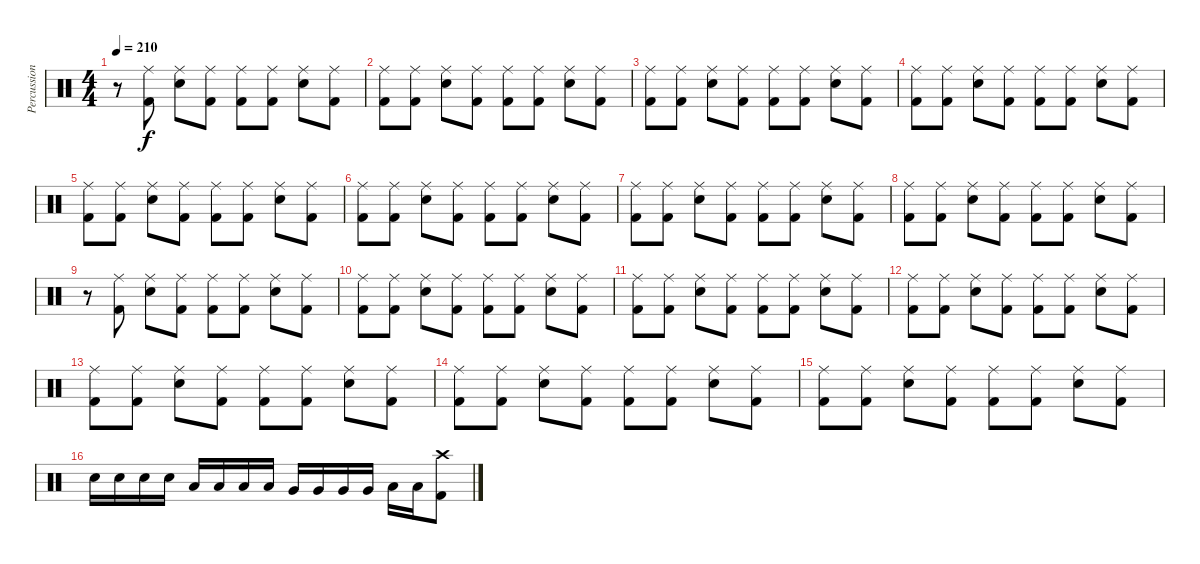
\track ("Percussion" "Percussion") {instrument percussion}
\staff {score}
\articulation defaults
\ts (4 4)
\tempo 210
\clef neutral
\ks c
r.8{dy f} ("Ride (middle)" "Kick (hit) 2").8 ("Ride (middle)" "Electric Snare (hit)").8 ("Ride (middle)" "Kick (hit) 2").8 ("Ride (middle)" "Kick (hit) 2").8 ("Ride (middle)" "Kick (hit) 2").8 ("Ride (middle)" "Electric Snare (hit)").8 ("Ride (middle)" "Kick (hit) 2").8 |
("Ride (middle)" "Kick (hit) 2").8 ("Ride (middle)" "Kick (hit) 2").8 ("Ride (middle)" "Electric Snare (hit)").8 ("Ride (middle)" "Kick (hit) 2").8 ("Ride (middle)" "Kick (hit) 2").8 ("Ride (middle)" "Kick (hit) 2").8 ("Ride (middle)" "Electric Snare (hit)").8 ("Ride (middle)" "Kick (hit) 2").8 |
("Ride (middle)" "Kick (hit) 2").8 ("Ride (middle)" "Kick (hit) 2").8 ("Ride (middle)" "Electric Snare (hit)").8 ("Ride (middle)" "Kick (hit) 2").8 ("Ride (middle)" "Kick (hit) 2").8 ("Ride (middle)" "Kick (hit) 2").8 ("Ride (middle)" "Electric Snare (hit)").8 ("Ride (middle)" "Kick (hit) 2").8 |
("Ride (middle)" "Kick (hit) 2").8 ("Ride (middle)" "Kick (hit) 2").8 ("Ride (middle)" "Electric Snare (hit)").8 ("Ride (middle)" "Kick (hit) 2").8 ("Ride (middle)" "Kick (hit) 2").8 ("Ride (middle)" "Kick (hit) 2").8 ("Ride (middle)" "Electric Snare (hit)").8 ("Ride (middle)" "Kick (hit) 2").8 |
("Ride (middle)" "Kick (hit) 2").8 ("Ride (middle)" "Kick (hit) 2").8 ("Ride (middle)" "Electric Snare (hit)").8 ("Ride (middle)" "Kick (hit) 2").8 ("Ride (middle)" "Kick (hit) 2").8 ("Ride (middle)" "Kick (hit) 2").8 ("Ride (middle)" "Electric Snare (hit)").8 ("Ride (middle)" "Kick (hit) 2").8 |
("Ride (middle)" "Kick (hit) 2").8 ("Ride (middle)" "Kick (hit) 2").8 ("Ride (middle)" "Electric Snare (hit)").8 ("Ride (middle)" "Kick (hit) 2").8 ("Ride (middle)" "Kick (hit) 2").8 ("Ride (middle)" "Kick (hit) 2").8 ("Ride (middle)" "Electric Snare (hit)").8 ("Ride (middle)" "Kick (hit) 2").8 |
("Ride (middle)" "Kick (hit) 2").8 ("Ride (middle)" "Kick (hit) 2").8 ("Ride (middle)" "Electric Snare (hit)").8 ("Ride (middle)" "Kick (hit) 2").8 ("Ride (middle)" "Kick (hit) 2").8 ("Ride (middle)" "Kick (hit) 2").8 ("Ride (middle)" "Electric Snare (hit)").8 ("Ride (middle)" "Kick (hit) 2").8 |
("Ride (middle)" "Kick (hit) 2").8 ("Ride (middle)" "Kick (hit) 2").8 ("Ride (middle)" "Electric Snare (hit)").8 ("Ride (middle)" "Kick (hit) 2").8 ("Ride (middle)" "Kick (hit) 2").8 ("Ride (middle)" "Kick (hit) 2").8 ("Ride (middle)" "Electric Snare (hit)").8 ("Ride (middle)" "Kick (hit) 2").8 |
r.8 ("Ride (middle)" "Kick (hit) 2").8 ("Ride (middle)" "Electric Snare (hit)").8 ("Ride (middle)" "Kick (hit) 2").8 ("Ride (middle)" "Kick (hit) 2").8 ("Ride (middle)" "Kick (hit) 2").8 ("Ride (middle)" "Electric Snare (hit)").8 ("Ride (middle)" "Kick (hit) 2").8 |
("Ride (middle)" "Kick (hit) 2").8 ("Ride (middle)" "Kick (hit) 2").8 ("Ride (middle)" "Electric Snare (hit)").8 ("Ride (middle)" "Kick (hit) 2").8 ("Ride (middle)" "Kick (hit) 2").8 ("Ride (middle)" "Kick (hit) 2").8 ("Ride (middle)" "Electric Snare (hit)").8 ("Ride (middle)" "Kick (hit) 2").8 |
("Ride (middle)" "Kick (hit) 2").8 ("Ride (middle)" "Kick (hit) 2").8 ("Ride (middle)" "Electric Snare (hit)").8 ("Ride (middle)" "Kick (hit) 2").8 ("Ride (middle)" "Kick (hit) 2").8 ("Ride (middle)" "Kick (hit) 2").8 ("Ride (middle)" "Electric Snare (hit)").8 ("Ride (middle)" "Kick (hit) 2").8 |
("Ride (middle)" "Kick (hit) 2").8 ("Ride (middle)" "Kick (hit) 2").8 ("Ride (middle)" "Electric Snare (hit)").8 ("Ride (middle)" "Kick (hit) 2").8 ("Ride (middle)" "Kick (hit) 2").8 ("Ride (middle)" "Kick (hit) 2").8 ("Ride (middle)" "Electric Snare (hit)").8 ("Ride (middle)" "Kick (hit) 2").8 |
("Ride (middle)" "Kick (hit) 2").8 ("Ride (middle)" "Kick (hit) 2").8 ("Ride (middle)" "Electric Snare (hit)").8 ("Ride (middle)" "Kick (hit) 2").8 ("Ride (middle)" "Kick (hit) 2").8 ("Ride (middle)" "Kick (hit) 2").8 ("Ride (middle)" "Electric Snare (hit)").8 ("Ride (middle)" "Kick (hit) 2").8 |
("Ride (middle)" "Kick (hit) 2").8 ("Ride (middle)" "Kick (hit) 2").8 ("Ride (middle)" "Electric Snare (hit)").8 ("Ride (middle)" "Kick (hit) 2").8 ("Ride (middle)" "Kick (hit) 2").8 ("Ride (middle)" "Kick (hit) 2").8 ("Ride (middle)" "Electric Snare (hit)").8 ("Ride (middle)" "Kick (hit) 2").8 |
("Ride (middle)" "Kick (hit) 2").8 ("Ride (middle)" "Kick (hit) 2").8 ("Ride (middle)" "Electric Snare (hit)").8 ("Ride (middle)" "Kick (hit) 2").8 ("Ride (middle)" "Kick (hit) 2").8 ("Ride (middle)" "Kick (hit) 2").8 ("Ride (middle)" "Electric Snare (hit)").8 ("Ride (middle)" "Kick (hit) 2").8 |
"Electric Snare (hit)".16 "Electric Snare (hit)".16 "Electric Snare (hit)".16 "Electric Snare (hit)".16 "Low Tom (hit)".16 "Low Tom (hit)".16 "Low Tom (hit)".16 "Low Tom (hit)".16 "Very Low Tom (hit)".16 "Very Low Tom (hit)".16 "Very Low Tom (hit)".16 "Very Low Tom (hit)".16 "Low Floor Tom (hit)".16 "Low Floor Tom (hit)".16 ("Crash high (hit)" "Kick (hit) 2").8
